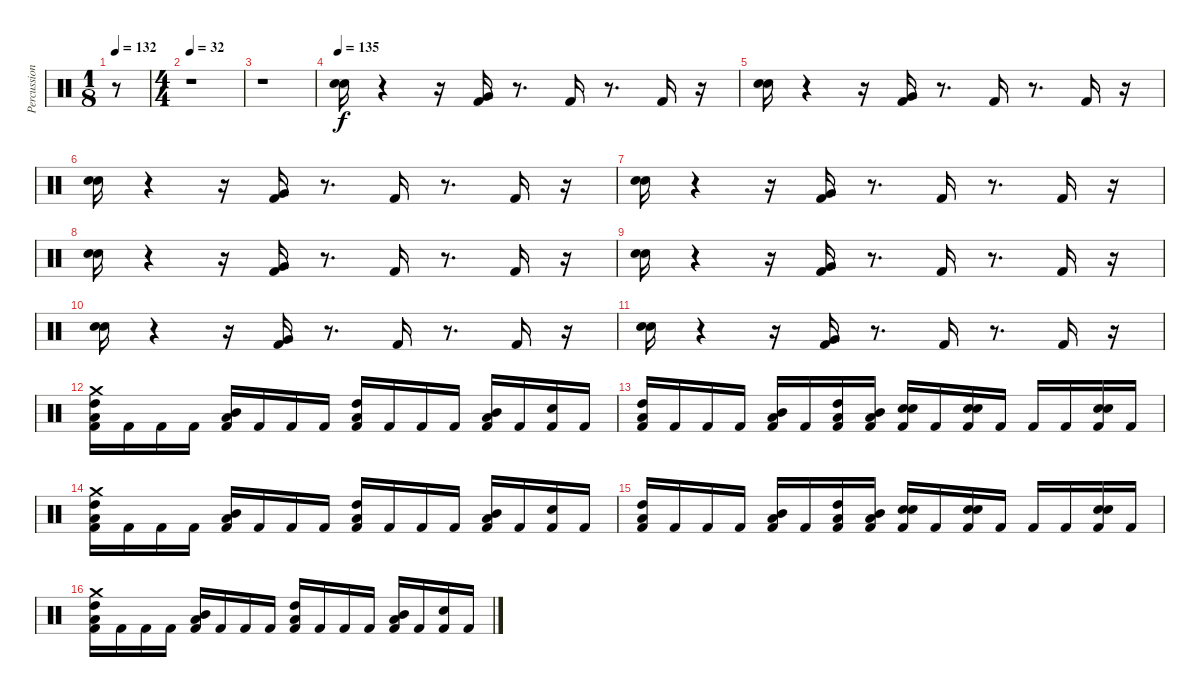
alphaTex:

\track ("Percussion" "Percussion") {instrument percussion}
\staff {score}
\articulation defaults
\ts (1 8)
\tempo 132
\clef neutral
\ks c
r.8{dy f} |
\ts (4 4)
\tempo 32
r.1 |
r.1 |
\tempo 135
("Snare (hit) 2" "Electric Snare (hit)").16 r.4 r.16 ("Kick (hit) 2" "Very Low Tom (hit)").16 r.8{d} "Kick (hit) 2".16 r.8{d} "Kick (hit) 2".16 r.16 |
("Snare (hit) 2" "Electric Snare (hit)").16 r.4 r.16 ("Kick (hit) 2" "Very Low Tom (hit)").16 r.8{d} "Kick (hit) 2".16 r.8{d} "Kick (hit) 2".16 r.16 |
("Snare (hit) 2" "Electric Snare (hit)").16 r.4 r.16 ("Kick (hit) 2" "Very Low Tom (hit)").16 r.8{d} "Kick (hit) 2".16 r.8{d} "Kick (hit) 2".16 r.16 |
("Snare (hit) 2" "Electric Snare (hit)").16 r.4 r.16 ("Kick (hit) 2" "Very Low Tom (hit)").16 r.8{d} "Kick (hit) 2".16 r.8{d} "Kick (hit) 2".16 r.16 |
("Snare (hit) 2" "Electric Snare (hit)").16 r.4 r.16 ("Kick (hit) 2" "Very Low Tom (hit)").16 r.8{d} "Kick (hit) 2".16 r.8{d} "Kick (hit) 2".16 r.16 |
("Snare (hit) 2" "Electric Snare (hit)").16 r.4 r.16 ("Kick (hit) 2" "Very Low Tom (hit)").16 r.8{d} "Kick (hit) 2".16 r.8{d} "Kick (hit) 2".16 r.16 |
("Snare (hit) 2" "Electric Snare (hit)").16 r.4 r.16 ("Kick (hit) 2" "Very Low Tom (hit)").16 r.8{d} "Kick (hit) 2".16 r.8{d} "Kick (hit) 2".16 r.16 |
("Snare (hit) 2" "Electric Snare (hit)").16 r.4 r.16 ("Kick (hit) 2" "Very Low Tom (hit)").16 r.8{d} "Kick (hit) 2".16 r.8{d} "Kick (hit) 2".16 r.16 |
("Kick (hit) 2" "Low Floor Tom (hit)" "High Tom (hit)" "Crash medium (hit)").16 "Kick (hit) 2".16 "Kick (hit) 2".16 "Kick (hit) 2".16 ("Kick (hit) 2" "Low Floor Tom (hit)" "Mid Tom (hit)").16 "Kick (hit) 2".16 "Kick (hit) 2".16 "Kick (hit) 2".16 ("Kick (hit) 2" "Low Floor Tom (hit)" "High Tom (hit)").16 "Kick (hit) 2".16 "Kick (hit) 2".16 "Kick (hit) 2".16 ("Kick (hit) 2" "Low Floor Tom (hit)" "Mid Tom (hit)").16 "Kick (hit) 2".16 ("Kick (hit) 2" "Electric Snare (hit)").16 "Kick (hit) 2".16 |
("Kick (hit) 2" "Low Floor Tom (hit)" "High Tom (hit)").16 "Kick (hit) 2".16 "Kick (hit) 2".16 "Kick (hit) 2".16 ("Kick (hit) 2" "Low Floor Tom (hit)" "Mid Tom (hit)").16 "Kick (hit) 2".16 ("Kick (hit) 2" "Low Floor Tom (hit)" "High Tom (hit)").16 ("Kick (hit) 2" "Low Floor Tom (hit)" "Mid Tom (hit)").16 ("Kick (hit) 2" "Snare (hit) 2" "Electric Snare (hit)").16 "Kick (hit) 2".16 ("Kick (hit) 2" "Snare (hit) 2" "Electric Snare (hit)").16 "Kick (hit) 2".16 "Kick (hit) 2".16 "Kick (hit) 2".16 ("Kick (hit) 2" "Snare (hit) 2" "Electric Snare (hit)").16 "Kick (hit) 2".16 |
("Kick (hit) 2" "Low Floor Tom (hit)" "High Tom (hit)" "Crash medium (hit)").16 "Kick (hit) 2".16 "Kick (hit) 2".16 "Kick (hit) 2".16 ("Kick (hit) 2" "Low Floor Tom (hit)" "Mid Tom (hit)").16 "Kick (hit) 2".16 "Kick (hit) 2".16 "Kick (hit) 2".16 ("Kick (hit) 2" "Low Floor Tom (hit)" "High Tom (hit)").16 "Kick (hit) 2".16 "Kick (hit) 2".16 "Kick (hit) 2".16 ("Kick (hit) 2" "Low Floor Tom (hit)" "Mid Tom (hit)").16 "Kick (hit) 2".16 ("Kick (hit) 2" "Electric Snare (hit)").16 "Kick (hit) 2".16 |
("Kick (hit) 2" "Low Floor Tom (hit)" "High Tom (hit)").16 "Kick (hit) 2".16 "Kick (hit) 2".16 "Kick (hit) 2".16 ("Kick (hit) 2" "Low Floor Tom (hit)" "Mid Tom (hit)").16 "Kick (hit) 2".16 ("Kick (hit) 2" "Low Floor Tom (hit)" "High Tom (hit)").16 ("Kick (hit) 2" "Low Floor Tom (hit)" "Mid Tom (hit)").16 ("Kick (hit) 2" "Snare (hit) 2" "Electric Snare (hit)").16 "Kick (hit) 2".16 ("Kick (hit) 2" "Snare (hit) 2" "Electric Snare (hit)").16 "Kick (hit) 2".16 "Kick (hit) 2".16 "Kick (hit) 2".16 ("Kick (hit) 2" "Snare (hit) 2" "Electric Snare (hit)").16 "Kick (hit) 2".16 |
("Kick (hit) 2" "Low Floor Tom (hit)" "High Tom (hit)" "Crash medium (hit)").16 "Kick (hit) 2".16 "Kick (hit) 2".16 "Kick (hit) 2".16 ("Kick (hit) 2" "Low Floor Tom (hit)" "Mid Tom (hit)").16 "Kick (hit) 2".16 "Kick (hit) 2".16 "Kick (hit) 2".16 ("Kick (hit) 2" "Low Floor Tom (hit)" "High Tom (hit)").16 "Kick (hit) 2".16 "Kick (hit) 2".16 "Kick (hit) 2".16 ("Kick (hit) 2" "Low Floor Tom (hit)" "Mid Tom (hit)").16 "Kick (hit) 2".16 ("Kick (hit) 2" "Electric Snare (hit)").16 "Kick (hit) 2".16
